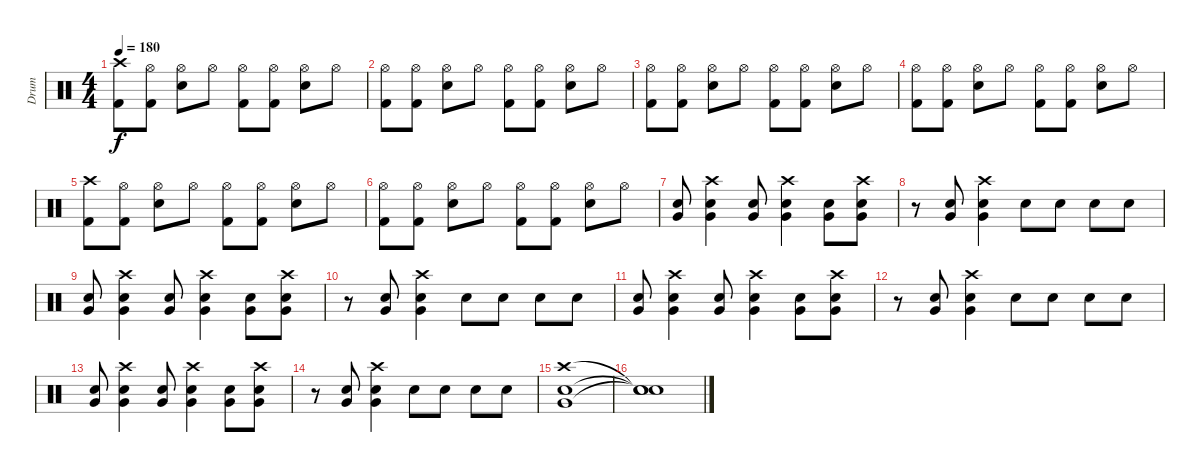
\track ("Drum" "Drum") {instrument percussion}
\staff {score}
\articulation defaults
\ts (4 4)
\tempo 180
\clef neutral
\ks c
("Crash high (hit)" "Kick (hit) 2").8{dy f} ("Hi-Hat (open)" "Kick (hit) 2").8 ("Hi-Hat (open)" "Electric Snare (hit)").8 "Hi-Hat (open)".8 ("Hi-Hat (open)" "Kick (hit) 2").8 ("Hi-Hat (open)" "Kick (hit) 2").8 ("Hi-Hat (open)" "Electric Snare (hit)").8 "Hi-Hat (open)".8 |
("Hi-Hat (open)" "Kick (hit) 2").8 ("Hi-Hat (open)" "Kick (hit) 2").8 ("Hi-Hat (open)" "Electric Snare (hit)").8 "Hi-Hat (open)".8 ("Hi-Hat (open)" "Kick (hit) 2").8 ("Hi-Hat (open)" "Kick (hit) 2").8 ("Hi-Hat (open)" "Electric Snare (hit)").8 "Hi-Hat (open)".8 |
("Hi-Hat (open)" "Kick (hit) 2").8 ("Hi-Hat (open)" "Kick (hit) 2").8 ("Hi-Hat (open)" "Electric Snare (hit)").8 "Hi-Hat (open)".8 ("Hi-Hat (open)" "Kick (hit) 2").8 ("Hi-Hat (open)" "Kick (hit) 2").8 ("Hi-Hat (open)" "Electric Snare (hit)").8 "Hi-Hat (open)".8 |
("Hi-Hat (open)" "Kick (hit) 2").8 ("Hi-Hat (open)" "Kick (hit) 2").8 ("Hi-Hat (open)" "Electric Snare (hit)").8 "Hi-Hat (open)".8 ("Hi-Hat (open)" "Kick (hit) 2").8 ("Hi-Hat (open)" "Kick (hit) 2").8 ("Hi-Hat (open)" "Electric Snare (hit)").8 "Hi-Hat (open)".8 |
("Crash high (hit)" "Kick (hit) 2").8 ("Hi-Hat (open)" "Kick (hit) 2").8 ("Hi-Hat (open)" "Electric Snare (hit)").8 "Hi-Hat (open)".8 ("Hi-Hat (open)" "Kick (hit) 2").8 ("Hi-Hat (open)" "Kick (hit) 2").8 ("Hi-Hat (open)" "Electric Snare (hit)").8 "Hi-Hat (open)".8 |
("Hi-Hat (open)" "Kick (hit) 2").8 ("Hi-Hat (open)" "Kick (hit) 2").8 ("Hi-Hat (open)" "Electric Snare (hit)").8 "Hi-Hat (open)".8 ("Hi-Hat (open)" "Kick (hit) 2").8 ("Hi-Hat (open)" "Kick (hit) 2").8 ("Hi-Hat (open)" "Electric Snare (hit)").8 "Hi-Hat (open)".8 |
("Electric Snare (hit)" "Very Low Tom (hit)").8 ("Crash high (hit)" "Electric Snare (hit)" "Very Low Tom (hit)").4 ("Electric Snare (hit)" "Very Low Tom (hit)").8 ("Crash high (hit)" "Electric Snare (hit)" "Very Low Tom (hit)").4 ("Electric Snare (hit)" "Very Low Tom (hit)").8 ("Crash high (hit)" "Electric Snare (hit)" "Very Low Tom (hit)").8 |
r.8 ("Electric Snare (hit)" "Very Low Tom (hit)").8 ("Crash high (hit)" "Electric Snare (hit)" "Very Low Tom (hit)").4 "Electric Snare (hit)".8 "Electric Snare (hit)".8 "Electric Snare (hit)".8 "Electric Snare (hit)".8 |
("Electric Snare (hit)" "Very Low Tom (hit)").8 ("Crash high (hit)" "Electric Snare (hit)" "Very Low Tom (hit)").4 ("Electric Snare (hit)" "Very Low Tom (hit)").8 ("Crash high (hit)" "Electric Snare (hit)" "Very Low Tom (hit)").4 ("Electric Snare (hit)" "Very Low Tom (hit)").8 ("Crash high (hit)" "Electric Snare (hit)" "Very Low Tom (hit)").8 |
r.8 ("Electric Snare (hit)" "Very Low Tom (hit)").8 ("Crash high (hit)" "Electric Snare (hit)" "Very Low Tom (hit)").4 "Electric Snare (hit)".8 "Electric Snare (hit)".8 "Electric Snare (hit)".8 "Electric Snare (hit)".8 |
("Electric Snare (hit)" "Very Low Tom (hit)").8 ("Crash high (hit)" "Electric Snare (hit)" "Very Low Tom (hit)").4 ("Electric Snare (hit)" "Very Low Tom (hit)").8 ("Crash high (hit)" "Electric Snare (hit)" "Very Low Tom (hit)").4 ("Electric Snare (hit)" "Very Low Tom (hit)").8 ("Crash high (hit)" "Electric Snare (hit)" "Very Low Tom (hit)").8 |
r.8 ("Electric Snare (hit)" "Very Low Tom (hit)").8 ("Crash high (hit)" "Electric Snare (hit)" "Very Low Tom (hit)").4 "Electric Snare (hit)".8 "Electric Snare (hit)".8 "Electric Snare (hit)".8 "Electric Snare (hit)".8 |
("Electric Snare (hit)" "Very Low Tom (hit)").8 ("Crash high (hit)" "Electric Snare (hit)" "Very Low Tom (hit)").4 ("Electric Snare (hit)" "Very Low Tom (hit)").8 ("Crash high (hit)" "Electric Snare (hit)" "Very Low Tom (hit)").4 ("Electric Snare (hit)" "Very Low Tom (hit)").8 ("Crash high (hit)" "Electric Snare (hit)" "Very Low Tom (hit)").8 |
r.8 ("Electric Snare (hit)" "Very Low Tom (hit)").8 ("Crash high (hit)" "Electric Snare (hit)" "Very Low Tom (hit)").4 "Electric Snare (hit)".8 "Electric Snare (hit)".8 "Electric Snare (hit)".8 "Electric Snare (hit)".8 |
("Crash high (hit)" "Electric Snare (hit)" "Very Low Tom (hit)").1 |
("Snare (hit)"{t} "Snare (hit)"{t} "Snare (hit)"{t}).1
